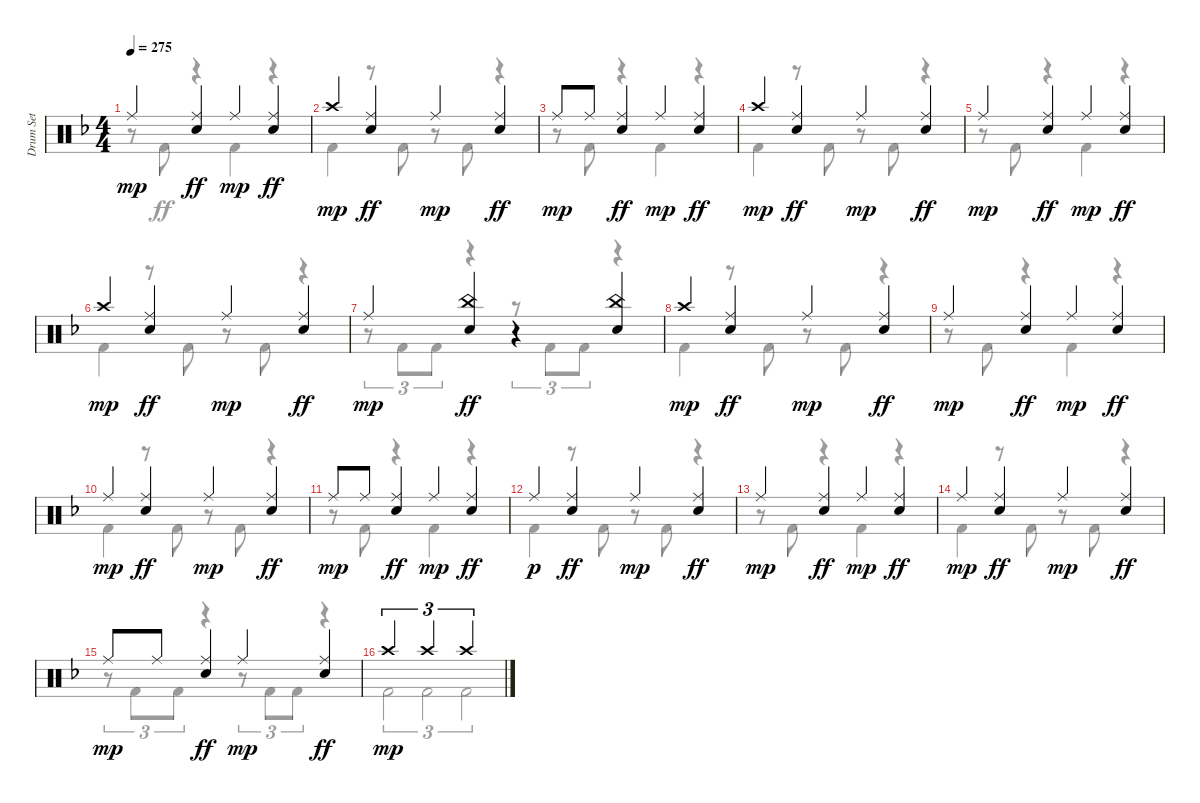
\track ("Drum Set" "Drum Set") {instrument percussion}
\staff {score}
\articulation defaults
\voice
\ts (4 4)
\tempo 275
\clef neutral
\ks dminor "Ride (middle)".4{dy mp}
("Ride (middle)" "Electric Snare (hit)").4{dy ff} "Ride (middle)".4{dy mp} ("Ride (middle)" "Electric Snare (hit)").4{dy ff} |
"Crash high (hit)".4{dy mp} ("Ride (middle)" "Electric Snare (hit)").4{dy ff} "Ride (middle)".4{dy mp} ("Ride (middle)" "Electric Snare (hit)").4{dy ff} |
"Ride (middle)".8{dy mp} "Ride (middle)".8 ("Ride (middle)" "Electric Snare (hit)").4{dy ff} "Ride (middle)".4{dy mp} ("Ride (middle)" "Electric Snare (hit)").4{dy ff} |
"Crash high (hit)".4{dy mp} ("Ride (middle)" "Electric Snare (hit)").4{dy ff} "Ride (middle)".4{dy mp} ("Ride (middle)" "Electric Snare (hit)").4{dy ff} |
"Ride (middle)".4{dy mp} ("Ride (middle)" "Electric Snare (hit)").4{dy ff} "Ride (middle)".4{dy mp} ("Ride (middle)" "Electric Snare (hit)").4{dy ff} |
"Crash high (hit)".4{dy mp} ("Ride (middle)" "Electric Snare (hit)").4{dy ff} "Ride (middle)".4{dy mp} ("Ride (middle)" "Electric Snare (hit)").4{dy ff} |
"Ride (middle)".4{dy mp} ("China (hit)" "Electric Snare (hit)").4{dy ff} r.4 ("China (hit)" "Electric Snare (hit)").4 |
"Crash high (hit)".4{dy mp} ("Ride (middle)" "Electric Snare (hit)").4{dy ff} "Ride (middle)".4{dy mp} ("Ride (middle)" "Electric Snare (hit)").4{dy ff} |
"Ride (middle)".4{dy mp} ("Ride (middle)" "Electric Snare (hit)").4{dy ff} "Ride (middle)".4{dy mp} ("Ride (middle)" "Electric Snare (hit)").4{dy ff} |
"Ride (middle)".4{dy mp} ("Ride (middle)" "Electric Snare (hit)").4{dy ff} "Ride (middle)".4{dy mp} ("Ride (middle)" "Electric Snare (hit)").4{dy ff} |
"Ride (middle)".8{dy mp} "Ride (middle)".8 ("Ride (middle)" "Electric Snare (hit)").4{dy ff} "Ride (middle)".4{dy mp} ("Ride (middle)" "Electric Snare (hit)").4{dy ff} |
"Ride (middle)".4{dy p} ("Ride (middle)" "Electric Snare (hit)").4{dy ff} "Ride (middle)".4{dy mp} ("Ride (middle)" "Electric Snare (hit)").4{dy ff} |
"Ride (middle)".4{dy mp} ("Ride (middle)" "Electric Snare (hit)").4{dy ff} "Ride (middle)".4{dy mp} ("Ride (middle)" "Electric Snare (hit)").4{dy ff} |
"Ride (middle)".4{dy mp} ("Ride (middle)" "Electric Snare (hit)").4{dy ff} "Ride (middle)".4{dy mp} ("Ride (middle)" "Electric Snare (hit)").4{dy ff} |
"Ride (middle)".8{dy mp} "Ride (middle)".8 ("Ride (middle)" "Electric Snare (hit)").4{dy ff} "Ride (middle)".4{dy mp} ("Ride (middle)" "Electric Snare (hit)").4{dy ff} |
"Crash high (hit)".2{tu (3 2) dy mp} "Crash high (hit)".2{tu (3 2)} "Crash high (hit)".2{tu (3 2)}
\voice
\clef neutral
\ottava regular
\simile none
\ks dminor
r.8{dy ff} "Kick (hit) 2".8 r.4 "Kick (hit) 2".4 r.4 |
"Kick (hit) 2".4 r.8 "Kick (hit) 2".8 r.8 "Kick (hit) 2".8 r.4 |
r.8 "Kick (hit) 2".8 r.4 "Kick (hit) 2".4 r.4 |
"Kick (hit) 2".4 r.8 "Kick (hit) 2".8 r.8 "Kick (hit) 2".8 r.4 |
r.8 "Kick (hit) 2".8 r.4 "Kick (hit) 2".4 r.4 |
"Kick (hit) 2".4 r.8 "Kick (hit) 2".8 r.8 "Kick (hit) 2".8 r.4 |
r.8{tu (3 2)} "Kick (hit) 2".8{tu (3 2)} "Kick (hit) 2".8{tu (3 2)} r.4 r.8{tu (3 2)} "Kick (hit) 2".8{tu (3 2)} "Kick (hit) 2".8{tu (3 2)} r.4 |
"Kick (hit) 2".4 r.8 "Kick (hit) 2".8 r.8 "Kick (hit) 2".8 r.4 |
r.8 "Kick (hit) 2".8 r.4 "Kick (hit) 2".4 r.4 |
"Kick (hit) 2".4 r.8 "Kick (hit) 2".8 r.8 "Kick (hit) 2".8 r.4 |
r.8 "Kick (hit) 2".8 r.4 "Kick (hit) 2".4 r.4 |
"Kick (hit) 2".4 r.8 "Kick (hit) 2".8 r.8 "Kick (hit) 2".8 r.4 |
r.8 "Kick (hit) 2".8 r.4 "Kick (hit) 2".4 r.4 |
"Kick (hit) 2".4 r.8 "Kick (hit) 2".8 r.8 "Kick (hit) 2".8 r.4 |
r.8{tu (3 2)} "Kick (hit) 2".8{tu (3 2)} "Kick (hit) 2".8{tu (3 2)} r.4 r.8{tu (3 2)} "Kick (hit) 2".8{tu (3 2)} "Kick (hit) 2".8{tu (3 2)} r.4 |
"Kick (hit) 2".2{tu (3 2)} "Kick (hit) 2".2{tu (3 2)} "Kick (hit) 2".2{tu (3 2)}
